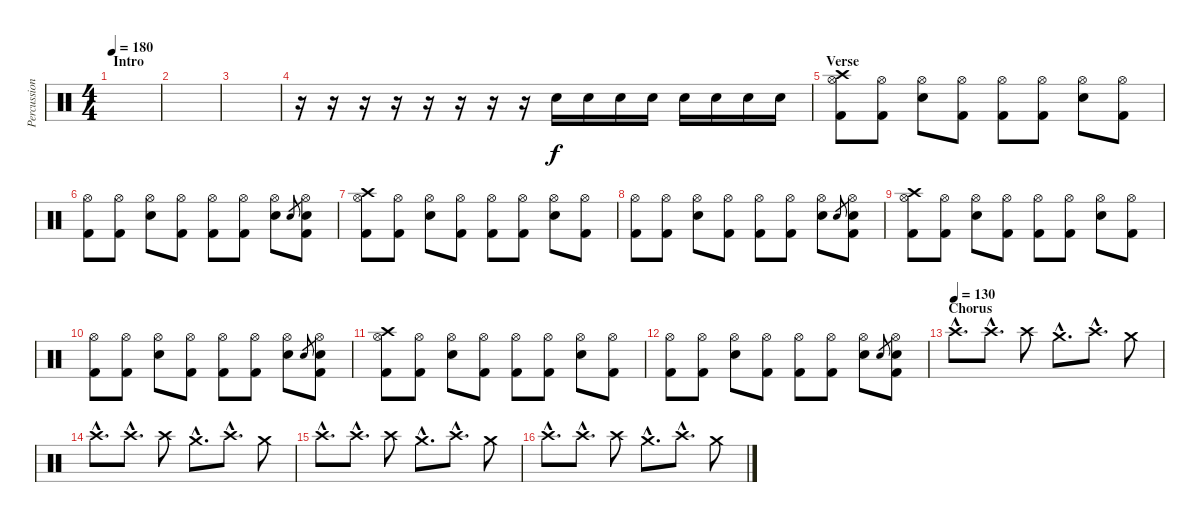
\track ("Percussion" "Percussion") {instrument percussion}
\staff {score}
\articulation defaults
\ts (4 4)
\section ("" "Intro")
\tempo 180
\clef neutral
\ks c
|
|
|
r.16 r.16 r.16 r.16 r.16 r.16 r.16 r.16 "Electric Snare (hit)".16 "Electric Snare (hit)".16 "Electric Snare (hit)".16 "Electric Snare (hit)".16 "Electric Snare (hit)".16 "Electric Snare (hit)".16 "Electric Snare (hit)".16 "Electric Snare (hit)".16 |
\section ("" "Verse")
("Crash high (hit)" "Hi-Hat (open)" "Kick (hit) 2").8 ("Hi-Hat (open)" "Kick (hit) 2").8 ("Hi-Hat (open)" "Electric Snare (hit)").8 ("Hi-Hat (open)" "Kick (hit) 2").8 ("Hi-Hat (open)" "Kick (hit) 2").8 ("Hi-Hat (open)" "Kick (hit) 2").8 ("Hi-Hat (open)" "Electric Snare (hit)").8 ("Hi-Hat (open)" "Kick (hit) 2").8 |
("Hi-Hat (open)" "Kick (hit) 2").8 ("Hi-Hat (open)" "Kick (hit) 2").8 ("Hi-Hat (open)" "Electric Snare (hit)").8 ("Hi-Hat (open)" "Kick (hit) 2").8 ("Hi-Hat (open)" "Kick (hit) 2").8 ("Hi-Hat (open)" "Kick (hit) 2").8 ("Hi-Hat (open)" "Electric Snare (hit)").8 "Electric Snare (hit)".8{gr} ("Hi-Hat (open)" "Electric Snare (hit)" "Kick (hit) 2").8 |
("Crash high (hit)" "Hi-Hat (open)" "Kick (hit) 2").8 ("Hi-Hat (open)" "Kick (hit) 2").8 ("Hi-Hat (open)" "Electric Snare (hit)").8 ("Hi-Hat (open)" "Kick (hit) 2").8 ("Hi-Hat (open)" "Kick (hit) 2").8 ("Hi-Hat (open)" "Kick (hit) 2").8 ("Hi-Hat (open)" "Electric Snare (hit)").8 ("Hi-Hat (open)" "Kick (hit) 2").8 |
("Hi-Hat (open)" "Kick (hit) 2").8 ("Hi-Hat (open)" "Kick (hit) 2").8 ("Hi-Hat (open)" "Electric Snare (hit)").8 ("Hi-Hat (open)" "Kick (hit) 2").8 ("Hi-Hat (open)" "Kick (hit) 2").8 ("Hi-Hat (open)" "Kick (hit) 2").8 ("Hi-Hat (open)" "Electric Snare (hit)").8 "Electric Snare (hit)".8{gr} ("Hi-Hat (open)" "Electric Snare (hit)" "Kick (hit) 2").8 |
("Crash high (hit)" "Hi-Hat (open)" "Kick (hit) 2").8 ("Hi-Hat (open)" "Kick (hit) 2").8 ("Hi-Hat (open)" "Electric Snare (hit)").8 ("Hi-Hat (open)" "Kick (hit) 2").8 ("Hi-Hat (open)" "Kick (hit) 2").8 ("Hi-Hat (open)" "Kick (hit) 2").8 ("Hi-Hat (open)" "Electric Snare (hit)").8 ("Hi-Hat (open)" "Kick (hit) 2").8 |
("Hi-Hat (open)" "Kick (hit) 2").8 ("Hi-Hat (open)" "Kick (hit) 2").8 ("Hi-Hat (open)" "Electric Snare (hit)").8 ("Hi-Hat (open)" "Kick (hit) 2").8 ("Hi-Hat (open)" "Kick (hit) 2").8 ("Hi-Hat (open)" "Kick (hit) 2").8 ("Hi-Hat (open)" "Electric Snare (hit)").8 "Electric Snare (hit)".8{gr} ("Hi-Hat (open)" "Electric Snare (hit)" "Kick (hit) 2").8 |
("Crash high (hit)" "Hi-Hat (open)" "Kick (hit) 2").8 ("Hi-Hat (open)" "Kick (hit) 2").8 ("Hi-Hat (open)" "Electric Snare (hit)").8 ("Hi-Hat (open)" "Kick (hit) 2").8 ("Hi-Hat (open)" "Kick (hit) 2").8 ("Hi-Hat (open)" "Kick (hit) 2").8 ("Hi-Hat (open)" "Electric Snare (hit)").8 ("Hi-Hat (open)" "Kick (hit) 2").8 |
("Hi-Hat (open)" "Kick (hit) 2").8 ("Hi-Hat (open)" "Kick (hit) 2").8 ("Hi-Hat (open)" "Electric Snare (hit)").8 ("Hi-Hat (open)" "Kick (hit) 2").8 ("Hi-Hat (open)" "Kick (hit) 2").8 ("Hi-Hat (open)" "Kick (hit) 2").8 ("Hi-Hat (open)" "Electric Snare (hit)").8 "Electric Snare (hit)".8{gr} ("Hi-Hat (open)" "Electric Snare (hit)" "Kick (hit) 2").8 |
\section ("" "Chorus")
\tempo (130)
"Crash high (hit)"{hac}.8{d volume 13} "Crash high (hit)"{hac}.8{d} "Crash high (hit)".8 "Crash medium (hit)"{hac}.8{d volume 8} "Crash high (hit)"{hac}.8{d} "Crash medium (hit)".8 |
"Crash high (hit)"{hac}.8{d volume 13} "Crash high (hit)"{hac}.8{d} "Crash high (hit)".8 "Crash medium (hit)"{hac}.8{d volume 8} "Crash high (hit)"{hac}.8{d} "Crash medium (hit)".8 |
"Crash high (hit)"{hac}.8{d volume 13} "Crash high (hit)"{hac}.8{d} "Crash high (hit)".8 "Crash medium (hit)"{hac}.8{d volume 8} "Crash high (hit)"{hac}.8{d} "Crash medium (hit)".8 |
"Crash high (hit)"{hac}.8{d volume 13} "Crash high (hit)"{hac}.8{d} "Crash high (hit)".8 "Crash medium (hit)"{hac}.8{d volume 8} "Crash high (hit)"{hac}.8{d} "Crash medium (hit)".8
